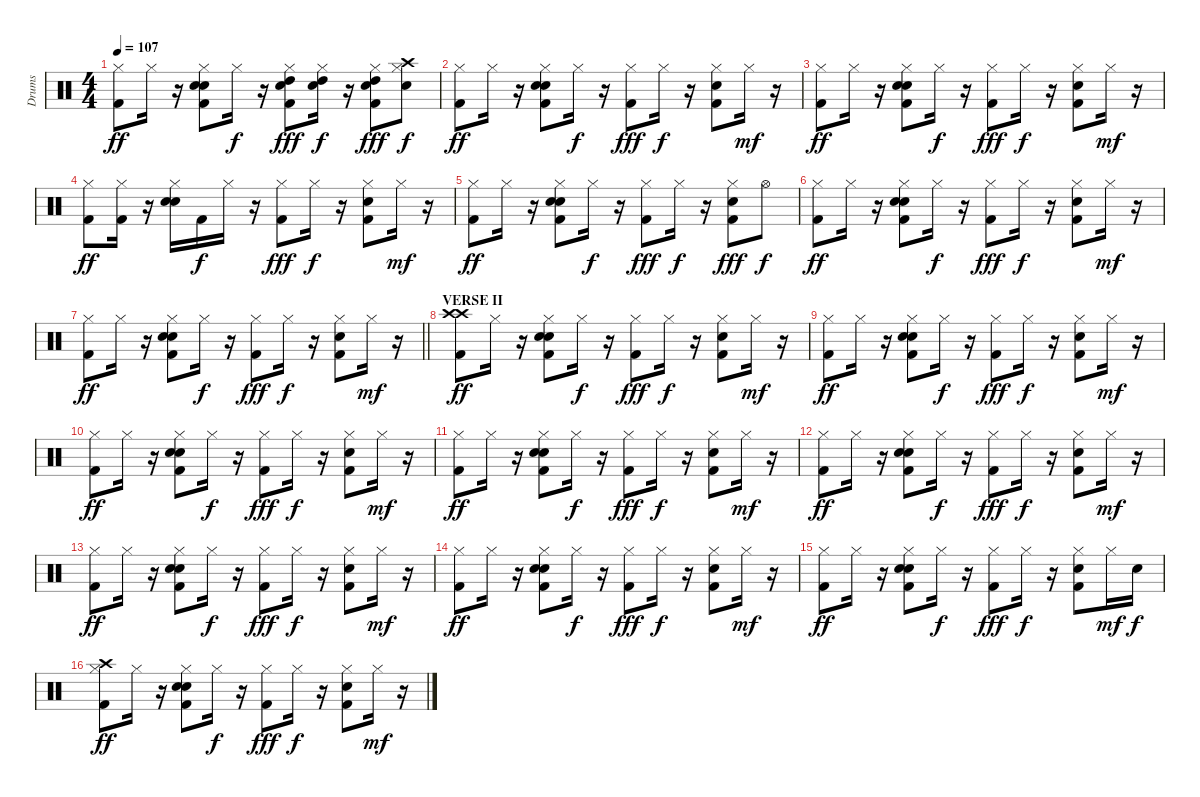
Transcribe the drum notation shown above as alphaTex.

\track ("Drums" "Drums") {instrument percussion}
\staff {score}
\articulation defaults
\ts (4 4)
\tempo 107
\clef neutral
\ks c
("Kick (hit) 2" "Hi-Hat (closed)").8{dy ff} "Hi-Hat (closed)".16 r.16 ("Kick (hit) 2" "Electric Snare (hit)" "Electric Snare (hit)" "Hi-Hat (closed)").8 "Hi-Hat (closed)".16{dy f} r.16 ("Kick (hit) 2" "Electric Snare (hit)" "Hi-Hat (closed)" "High Tom (hit)").8{dy fff} ("Electric Snare (hit)" "Hi-Hat (closed)" "High Tom (hit)").16{dy f} r.16 ("Kick (hit) 2" "Electric Snare (hit)" "Hi-Hat (closed)" "High Tom (hit)").8{dy fff} ("Electric Snare (hit)" "Hi-Hat (closed)" "Crash high (hit)").8{dy f} |
("Kick (hit) 2" "Hi-Hat (closed)").8{dy ff} "Hi-Hat (closed)".16 r.16 ("Kick (hit) 2" "Electric Snare (hit)" "Electric Snare (hit)" "Hi-Hat (closed)").8 "Hi-Hat (closed)".16{dy f} r.16 ("Kick (hit) 2" "Hi-Hat (closed)").8{dy fff} "Hi-Hat (closed)".16{dy f} r.16 ("Kick (hit) 2" "Electric Snare (hit)" "Hi-Hat (closed)").8 "Hi-Hat (closed)".16{dy mf} r.16 |
("Kick (hit) 2" "Hi-Hat (closed)").8{dy ff} "Hi-Hat (closed)".16 r.16 ("Kick (hit) 2" "Electric Snare (hit)" "Electric Snare (hit)" "Hi-Hat (closed)").8 "Hi-Hat (closed)".16{dy f} r.16 ("Kick (hit) 2" "Hi-Hat (closed)").8{dy fff} "Hi-Hat (closed)".16{dy f} r.16 ("Kick (hit) 2" "Electric Snare (hit)" "Hi-Hat (closed)").8 "Hi-Hat (closed)".16{dy mf} r.16 |
("Kick (hit) 2" "Hi-Hat (closed)").8{dy ff} ("Kick (hit) 2" "Hi-Hat (closed)").16 r.16 ("Electric Snare (hit)" "Electric Snare (hit)" "Hi-Hat (closed)").16 "Kick (hit) 2".16{dy f} "Hi-Hat (closed)".16 r.16 ("Kick (hit) 2" "Hi-Hat (closed)").8{dy fff} "Hi-Hat (closed)".16{dy f} r.16 ("Kick (hit) 2" "Electric Snare (hit)" "Hi-Hat (closed)").8 "Hi-Hat (closed)".16{dy mf} r.16 |
("Kick (hit) 2" "Hi-Hat (closed)").8{dy ff} "Hi-Hat (closed)".16 r.16 ("Kick (hit) 2" "Electric Snare (hit)" "Electric Snare (hit)" "Hi-Hat (closed)").8 "Hi-Hat (closed)".16{dy f} r.16 ("Kick (hit) 2" "Hi-Hat (closed)").8{dy fff} "Hi-Hat (closed)".16{dy f} r.16 ("Kick (hit) 2" "Electric Snare (hit)" "Hi-Hat (closed)").8{dy fff} "Hi-Hat (open)".8{dy f} |
("Kick (hit) 2" "Hi-Hat (closed)").8{dy ff} "Hi-Hat (closed)".16 r.16 ("Kick (hit) 2" "Electric Snare (hit)" "Electric Snare (hit)" "Hi-Hat (closed)").8 "Hi-Hat (closed)".16{dy f} r.16 ("Kick (hit) 2" "Hi-Hat (closed)").8{dy fff} "Hi-Hat (closed)".16{dy f} r.16 ("Kick (hit) 2" "Electric Snare (hit)" "Hi-Hat (closed)").8 "Hi-Hat (closed)".16{dy mf} r.16 |
\barLineRight lightlight
("Kick (hit) 2" "Hi-Hat (closed)").8{dy ff} "Hi-Hat (closed)".16 r.16 ("Kick (hit) 2" "Electric Snare (hit)" "Electric Snare (hit)" "Hi-Hat (closed)").8 "Hi-Hat (closed)".16{dy f} r.16 ("Kick (hit) 2" "Hi-Hat (closed)").8{dy fff} "Hi-Hat (closed)".16{dy f} r.16 ("Kick (hit) 2" "Electric Snare (hit)" "Hi-Hat (closed)").8 "Hi-Hat (closed)".16{dy mf} r.16 |
\section ("" "VERSE II")
("Kick (hit) 2" "Crash high (hit)" "Crash high (hit)").8{dy ff} "Hi-Hat (closed)".16 r.16 ("Kick (hit) 2" "Electric Snare (hit)" "Electric Snare (hit)" "Hi-Hat (closed)").8 "Hi-Hat (closed)".16{dy f} r.16 ("Kick (hit) 2" "Hi-Hat (closed)").8{dy fff} "Hi-Hat (closed)".16{dy f} r.16 ("Kick (hit) 2" "Electric Snare (hit)" "Hi-Hat (closed)").8 "Hi-Hat (closed)".16{dy mf} r.16 |
("Kick (hit) 2" "Hi-Hat (closed)").8{dy ff} "Hi-Hat (closed)".16 r.16 ("Kick (hit) 2" "Electric Snare (hit)" "Electric Snare (hit)" "Hi-Hat (closed)").8 "Hi-Hat (closed)".16{dy f} r.16 ("Kick (hit) 2" "Hi-Hat (closed)").8{dy fff} "Hi-Hat (closed)".16{dy f} r.16 ("Kick (hit) 2" "Electric Snare (hit)" "Hi-Hat (closed)").8 "Hi-Hat (closed)".16{dy mf} r.16 |
("Kick (hit) 2" "Hi-Hat (closed)").8{dy ff} "Hi-Hat (closed)".16 r.16 ("Kick (hit) 2" "Electric Snare (hit)" "Electric Snare (hit)" "Hi-Hat (closed)").8 "Hi-Hat (closed)".16{dy f} r.16 ("Kick (hit) 2" "Hi-Hat (closed)").8{dy fff} "Hi-Hat (closed)".16{dy f} r.16 ("Kick (hit) 2" "Electric Snare (hit)" "Hi-Hat (closed)").8 "Hi-Hat (closed)".16{dy mf} r.16 |
("Kick (hit) 2" "Hi-Hat (closed)").8{dy ff} "Hi-Hat (closed)".16 r.16 ("Kick (hit) 2" "Electric Snare (hit)" "Electric Snare (hit)" "Hi-Hat (closed)").8 "Hi-Hat (closed)".16{dy f} r.16 ("Kick (hit) 2" "Hi-Hat (closed)").8{dy fff} "Hi-Hat (closed)".16{dy f} r.16 ("Kick (hit) 2" "Electric Snare (hit)" "Hi-Hat (closed)").8 "Hi-Hat (closed)".16{dy mf} r.16 |
("Kick (hit) 2" "Hi-Hat (closed)").8{dy ff} "Hi-Hat (closed)".16 r.16 ("Kick (hit) 2" "Electric Snare (hit)" "Electric Snare (hit)" "Hi-Hat (closed)").8 "Hi-Hat (closed)".16{dy f} r.16 ("Kick (hit) 2" "Hi-Hat (closed)").8{dy fff} "Hi-Hat (closed)".16{dy f} r.16 ("Kick (hit) 2" "Electric Snare (hit)" "Hi-Hat (closed)").8 "Hi-Hat (closed)".16{dy mf} r.16 |
("Kick (hit) 2" "Hi-Hat (closed)").8{dy ff} "Hi-Hat (closed)".16 r.16 ("Kick (hit) 2" "Electric Snare (hit)" "Electric Snare (hit)" "Hi-Hat (closed)").8 "Hi-Hat (closed)".16{dy f} r.16 ("Kick (hit) 2" "Hi-Hat (closed)").8{dy fff} "Hi-Hat (closed)".16{dy f} r.16 ("Kick (hit) 2" "Electric Snare (hit)" "Hi-Hat (closed)").8 "Hi-Hat (closed)".16{dy mf} r.16 |
("Kick (hit) 2" "Hi-Hat (closed)").8{dy ff} "Hi-Hat (closed)".16 r.16 ("Kick (hit) 2" "Electric Snare (hit)" "Electric Snare (hit)" "Hi-Hat (closed)").8 "Hi-Hat (closed)".16{dy f} r.16 ("Kick (hit) 2" "Hi-Hat (closed)").8{dy fff} "Hi-Hat (closed)".16{dy f} r.16 ("Kick (hit) 2" "Electric Snare (hit)" "Hi-Hat (closed)").8 "Hi-Hat (closed)".16{dy mf} r.16 |
("Kick (hit) 2" "Hi-Hat (closed)").8{dy ff} "Hi-Hat (closed)".16 r.16 ("Kick (hit) 2" "Electric Snare (hit)" "Electric Snare (hit)" "Hi-Hat (closed)").8 "Hi-Hat (closed)".16{dy f} r.16 ("Kick (hit) 2" "Hi-Hat (closed)").8{dy fff} "Hi-Hat (closed)".16{dy f} r.16 ("Kick (hit) 2" "Electric Snare (hit)" "Hi-Hat (closed)").8 "Hi-Hat (closed)".16{dy mf} "Electric Snare (hit)".16{dy f} |
("Kick (hit) 2" "Hi-Hat (closed)" "Crash high (hit)").8{dy ff} "Hi-Hat (closed)".16 r.16 ("Kick (hit) 2" "Electric Snare (hit)" "Electric Snare (hit)" "Hi-Hat (closed)").8 "Hi-Hat (closed)".16{dy f} r.16 ("Kick (hit) 2" "Hi-Hat (closed)").8{dy fff} "Hi-Hat (closed)".16{dy f} r.16 ("Kick (hit) 2" "Electric Snare (hit)" "Hi-Hat (closed)").8 "Hi-Hat (closed)".16{dy mf} r.16
